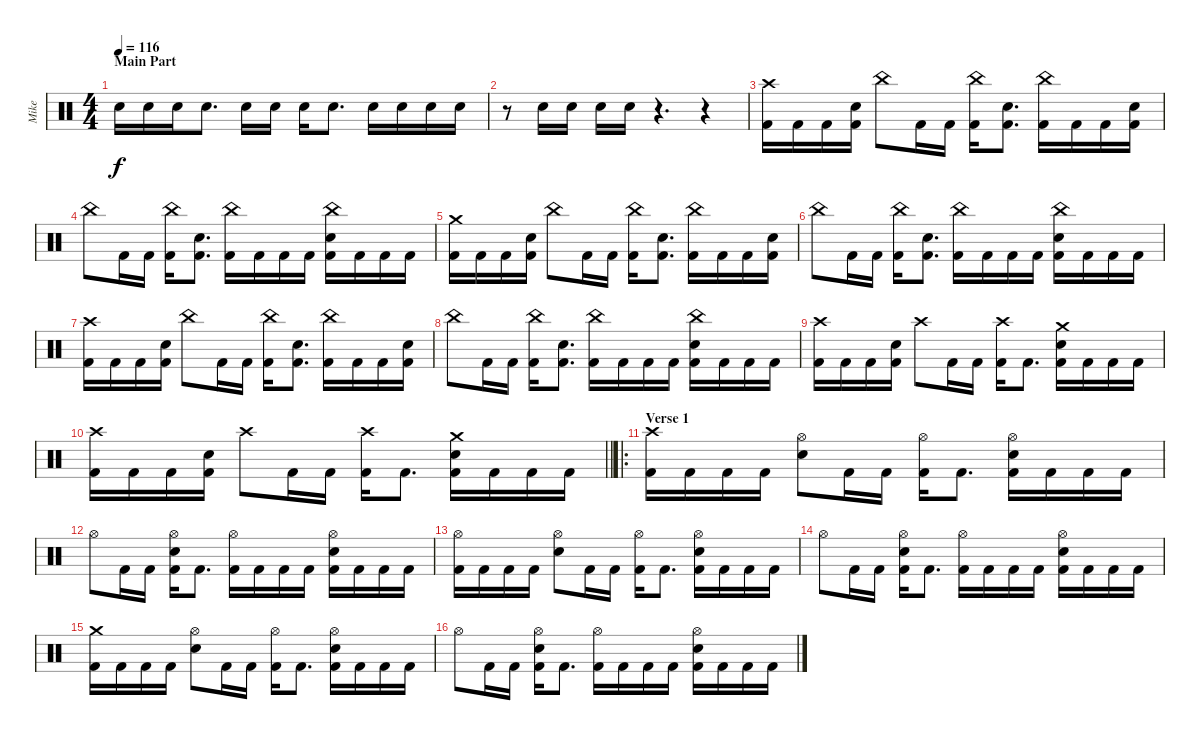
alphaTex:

\track ("Mike" "Mike") {instrument percussion}
\staff {score}
\articulation defaults
\ts (4 4)
\section ("" "Main Part")
\tempo 116
\clef neutral
\ks c "Snare (hit) 2".16{dy f} "Snare (hit) 2".16 "Snare (hit) 2".16 "Snare (hit) 2".8{d} "Snare (hit) 2".16 "Snare (hit) 2".16 "Snare (hit) 2".16 "Snare (hit) 2".8{d} "Snare (hit) 2".16 "Snare (hit) 2".16 "Snare (hit) 2".16 "Snare (hit) 2".16
|
r.8 "Snare (hit) 2".16 "Snare (hit) 2".16 "Snare (hit) 2".16 "Snare (hit) 2".16 r.4{d} r.4 |
("Crash high (hit)" "Kick (hit) 2").16 "Kick (hit) 2".16 "Kick (hit) 2".16 ("Snare (hit) 2" "Kick (hit) 2").16 "China (hit)".8 "Kick (hit) 2".16 "Kick (hit) 2".16 ("China (hit)" "Kick (hit) 2").16 ("Snare (hit) 2" "Kick (hit) 2").8{d} ("China (hit)" "Kick (hit) 2").16 "Kick (hit) 2".16 "Kick (hit) 2".16 ("Snare (hit) 2" "Kick (hit) 2").16 |
"China (hit)".8 "Kick (hit) 2".16 "Kick (hit) 2".16 ("China (hit)" "Kick (hit) 2").16 ("Snare (hit) 2" "Kick (hit) 2").8{d} ("China (hit)" "Kick (hit) 2").16 "Kick (hit) 2".16 "Kick (hit) 2".16 "Kick (hit) 2".16 ("China (hit)" "Snare (hit) 2" "Kick (hit) 2").16 "Kick (hit) 2".16 "Kick (hit) 2".16 "Kick (hit) 2".16 |
("Crash medium (hit)" "Kick (hit) 2").16 "Kick (hit) 2".16 "Kick (hit) 2".16 ("Snare (hit) 2" "Kick (hit) 2").16 "China (hit)".8 "Kick (hit) 2".16 "Kick (hit) 2".16 ("China (hit)" "Kick (hit) 2").16 ("Snare (hit) 2" "Kick (hit) 2").8{d} ("China (hit)" "Kick (hit) 2").16 "Kick (hit) 2".16 "Kick (hit) 2".16 ("Snare (hit) 2" "Kick (hit) 2").16 |
"China (hit)".8 "Kick (hit) 2".16 "Kick (hit) 2".16 ("China (hit)" "Kick (hit) 2").16 ("Snare (hit) 2" "Kick (hit) 2").8{d} ("China (hit)" "Kick (hit) 2").16 "Kick (hit) 2".16 "Kick (hit) 2".16 "Kick (hit) 2".16 ("China (hit)" "Snare (hit) 2" "Kick (hit) 2").16 "Kick (hit) 2".16 "Kick (hit) 2".16 "Kick (hit) 2".16 |
("Crash high (hit)" "Kick (hit) 2").16 "Kick (hit) 2".16 "Kick (hit) 2".16 ("Snare (hit) 2" "Kick (hit) 2").16 "China (hit)".8 "Kick (hit) 2".16 "Kick (hit) 2".16 ("China (hit)" "Kick (hit) 2").16 ("Snare (hit) 2" "Kick (hit) 2").8{d} ("China (hit)" "Kick (hit) 2").16 "Kick (hit) 2".16 "Kick (hit) 2".16 ("Snare (hit) 2" "Kick (hit) 2").16 |
"China (hit)".8 "Kick (hit) 2".16 "Kick (hit) 2".16 ("China (hit)" "Kick (hit) 2").16 ("Snare (hit) 2" "Kick (hit) 2").8{d} ("China (hit)" "Kick (hit) 2").16 "Kick (hit) 2".16 "Kick (hit) 2".16 "Kick (hit) 2".16 ("China (hit)" "Snare (hit) 2" "Kick (hit) 2").16 "Kick (hit) 2".16 "Kick (hit) 2".16 "Kick (hit) 2".16 |
("Crash high (hit)" "Kick (hit) 2").16 "Kick (hit) 2".16 "Kick (hit) 2".16 ("Snare (hit) 2" "Kick (hit) 2").16 "Crash high (hit)".8 "Kick (hit) 2".16 "Kick (hit) 2".16 ("Crash high (hit)" "Kick (hit) 2").16 "Kick (hit) 2".8{d} ("Crash medium (hit)" "Snare (hit) 2" "Kick (hit) 2").16 "Kick (hit) 2".16 "Kick (hit) 2".16 "Kick (hit) 2".16 |
\barLineRight lightlight
("Crash high (hit)" "Kick (hit) 2").16 "Kick (hit) 2".16 "Kick (hit) 2".16 ("Snare (hit) 2" "Kick (hit) 2").16 "Crash high (hit)".8 "Kick (hit) 2".16 "Kick (hit) 2".16 ("Crash high (hit)" "Kick (hit) 2").16 "Kick (hit) 2".8{d} ("Crash medium (hit)" "Snare (hit) 2" "Kick (hit) 2").16 "Kick (hit) 2".16 "Kick (hit) 2".16 "Kick (hit) 2".16 |
\ro
\section ("" "Verse 1")
("Crash high (hit)" "Kick (hit) 2").16 "Kick (hit) 2".16 "Kick (hit) 2".16 "Kick (hit) 2".16 ("Snare (hit) 2" "Hi-Hat (open)").8 "Kick (hit) 2".16 "Kick (hit) 2".16 ("Hi-Hat (open)" "Kick (hit) 2").16 "Kick (hit) 2".8{d} ("Snare (hit) 2" "Hi-Hat (open)" "Kick (hit) 2").16 "Kick (hit) 2".16 "Kick (hit) 2".16 "Kick (hit) 2".16 |
"Hi-Hat (open)".8 "Kick (hit) 2".16 "Kick (hit) 2".16 ("Snare (hit) 2" "Hi-Hat (open)" "Kick (hit) 2").16 "Kick (hit) 2".8{d} ("Hi-Hat (open)" "Kick (hit) 2").16 "Kick (hit) 2".16 "Kick (hit) 2".16 "Kick (hit) 2".16 ("Snare (hit) 2" "Hi-Hat (open)" "Kick (hit) 2").16 "Kick (hit) 2".16 "Kick (hit) 2".16 "Kick (hit) 2".16 |
("Hi-Hat (open)" "Kick (hit) 2").16 "Kick (hit) 2".16 "Kick (hit) 2".16 "Kick (hit) 2".16 ("Snare (hit) 2" "Hi-Hat (open)").8 "Kick (hit) 2".16 "Kick (hit) 2".16 ("Hi-Hat (open)" "Kick (hit) 2").16 "Kick (hit) 2".8{d} ("Snare (hit) 2" "Hi-Hat (open)" "Kick (hit) 2").16 "Kick (hit) 2".16 "Kick (hit) 2".16 "Kick (hit) 2".16 |
"Hi-Hat (open)".8 "Kick (hit) 2".16 "Kick (hit) 2".16 ("Snare (hit) 2" "Hi-Hat (open)" "Kick (hit) 2").16 "Kick (hit) 2".8{d} ("Hi-Hat (open)" "Kick (hit) 2").16 "Kick (hit) 2".16 "Kick (hit) 2".16 "Kick (hit) 2".16 ("Snare (hit) 2" "Hi-Hat (open)" "Kick (hit) 2").16 "Kick (hit) 2".16 "Kick (hit) 2".16 "Kick (hit) 2".16 |
("Crash medium (hit)" "Kick (hit) 2").16 "Kick (hit) 2".16 "Kick (hit) 2".16 "Kick (hit) 2".16 ("Snare (hit) 2" "Hi-Hat (open)").8 "Kick (hit) 2".16 "Kick (hit) 2".16 ("Hi-Hat (open)" "Kick (hit) 2").16 "Kick (hit) 2".8{d} ("Snare (hit) 2" "Hi-Hat (open)" "Kick (hit) 2").16 "Kick (hit) 2".16 "Kick (hit) 2".16 "Kick (hit) 2".16 |
"Hi-Hat (open)".8 "Kick (hit) 2".16 "Kick (hit) 2".16 ("Snare (hit) 2" "Hi-Hat (open)" "Kick (hit) 2").16 "Kick (hit) 2".8{d} ("Hi-Hat (open)" "Kick (hit) 2").16 "Kick (hit) 2".16 "Kick (hit) 2".16 "Kick (hit) 2".16 ("Snare (hit) 2" "Hi-Hat (open)" "Kick (hit) 2").16 "Kick (hit) 2".16 "Kick (hit) 2".16 "Kick (hit) 2".16
